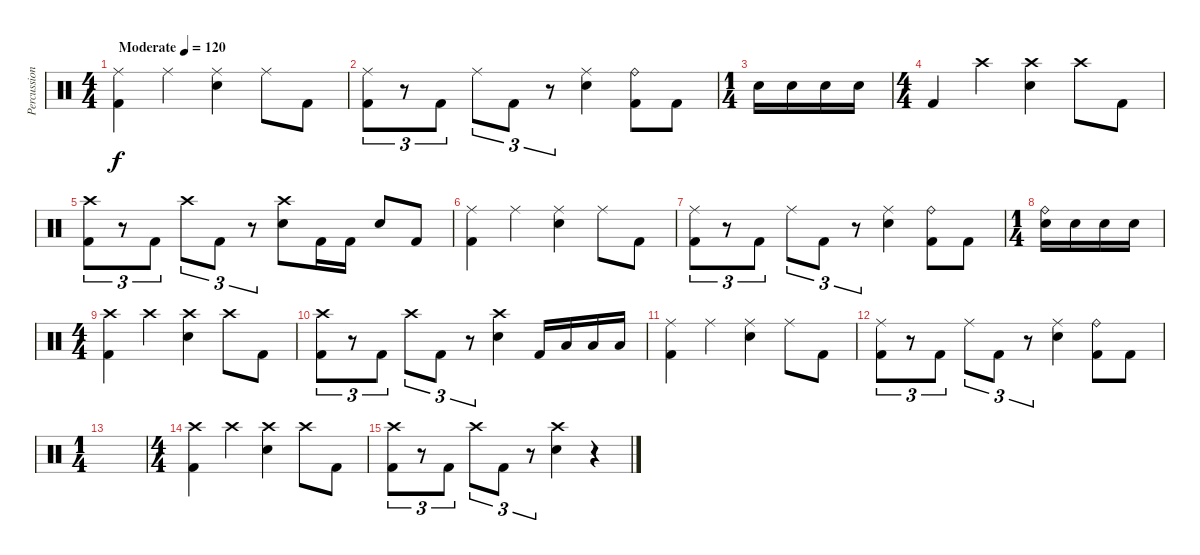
\track ("Percussion" "Percussion") {instrument percussion}
\staff {score}
\articulation defaults
\ts (4 4)
\tempo (120 "Moderate")
\clef neutral
\ks c
("Ride (middle)" "Kick (hit) 2").4{dy f} "Ride (middle)".4 ("Ride (middle)" "Snare (hit) 2").4 "Ride (middle)".8 "Kick (hit) 2".8 |
("Ride (middle)" "Kick (hit) 2").8{tu (3 2)} r.8{tu (3 2)} "Kick (hit) 2".8{tu (3 2)} "Ride (middle)".8{tu (3 2)} "Kick (hit) 2".8{tu (3 2)} r.8{tu (3 2)} ("Ride (middle)" "Snare (hit) 2").4 ("Ride (bell)" "Kick (hit) 2").8 "Kick (hit) 2".8 |
\ts (1 4)
"Snare (hit) 2".16 "Snare (hit) 2".16 "Snare (hit) 2".16 "Snare (hit) 2".16 |
\ts (4 4)
"Kick (hit) 2".4 "Crash high (hit)".4 ("Crash high (hit)" "Snare (hit) 2").4 "Crash high (hit)".8 "Kick (hit) 2".8 |
("Crash high (hit)" "Kick (hit) 2").8{tu (3 2)} r.8{tu (3 2)} "Kick (hit) 2".8{tu (3 2)} "Crash high (hit)".8{tu (3 2)} "Kick (hit) 2".8{tu (3 2)} r.8{tu (3 2)} ("Crash high (hit)" "Snare (hit) 2").8 "Kick (hit) 2".16 "Kick (hit) 2".16 "Snare (hit) 2".8 "Kick (hit) 2".8 |
("Ride (middle)" "Kick (hit) 2").4 "Ride (middle)".4 ("Ride (middle)" "Snare (hit) 2").4 "Ride (middle)".8 "Kick (hit) 2".8 |
("Ride (middle)" "Kick (hit) 2").8{tu (3 2)} r.8{tu (3 2)} "Kick (hit) 2".8{tu (3 2)} "Ride (middle)".8{tu (3 2)} "Kick (hit) 2".8{tu (3 2)} r.8{tu (3 2)} ("Ride (middle)" "Snare (hit) 2").4 ("Ride (bell)" "Kick (hit) 2").8 "Kick (hit) 2".8 |
\ts (1 4)
("Ride (bell)" "Snare (hit) 2").16 "Snare (hit) 2".16 "Snare (hit) 2".16 "Snare (hit) 2".16 |
\ts (4 4)
("Crash high (hit)" "Kick (hit) 2").4 "Crash high (hit)".4 ("Crash high (hit)" "Snare (hit) 2").4 "Crash high (hit)".8 "Kick (hit) 2".8 |
("Crash high (hit)" "Kick (hit) 2").8{tu (3 2)} r.8{tu (3 2)} "Kick (hit) 2".8{tu (3 2)} "Crash high (hit)".8{tu (3 2)} "Kick (hit) 2".8{tu (3 2)} r.8{tu (3 2)} ("Crash high (hit)" "Snare (hit) 2").4 "Kick (hit) 2".16 "Low Floor Tom (hit)".16 "Low Floor Tom (hit)".16 "Low Floor Tom (hit)".16 |
("Ride (middle)" "Kick (hit) 2").4 "Ride (middle)".4 ("Ride (middle)" "Snare (hit) 2").4 "Ride (middle)".8 "Kick (hit) 2".8 |
("Ride (middle)" "Kick (hit) 2").8{tu (3 2)} r.8{tu (3 2)} "Kick (hit) 2".8{tu (3 2)} "Ride (middle)".8{tu (3 2)} "Kick (hit) 2".8{tu (3 2)} r.8{tu (3 2)} ("Ride (middle)" "Snare (hit) 2").4 ("Ride (bell)" "Kick (hit) 2").8 "Kick (hit) 2".8 |
\ts (1 4)
|
\ts (4 4)
("Crash high (hit)" "Kick (hit) 2").4 "Crash high (hit)".4 ("Crash high (hit)" "Snare (hit) 2").4 "Crash high (hit)".8 "Kick (hit) 2".8 |
("Crash high (hit)" "Kick (hit) 2").8{tu (3 2)} r.8{tu (3 2)} "Kick (hit) 2".8{tu (3 2)} "Crash high (hit)".8{tu (3 2)} "Kick (hit) 2".8{tu (3 2)} r.8{tu (3 2)} ("Crash high (hit)" "Snare (hit) 2").4 r.4
